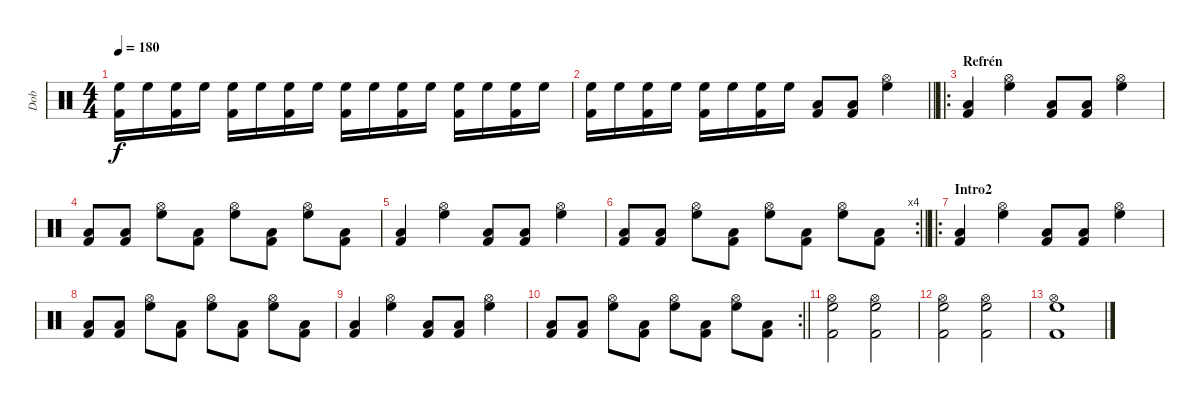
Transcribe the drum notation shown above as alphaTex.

\track ("Dob" "Dob") {instrument percussion}
\staff {score}
\articulation defaults
\ts (4 4)
\tempo 180
\clef neutral
\ks c
("Kick (hit) 2" "High Floor Tom (hit)").16{dy f} "High Floor Tom (hit)".16 ("Kick (hit) 2" "High Floor Tom (hit)").16 "High Floor Tom (hit)".16 ("Kick (hit) 2" "High Floor Tom (hit)").16 "High Floor Tom (hit)".16 ("Kick (hit) 2" "High Floor Tom (hit)").16 "High Floor Tom (hit)".16 ("Kick (hit) 2" "High Floor Tom (hit)").16 "High Floor Tom (hit)".16 ("Kick (hit) 2" "High Floor Tom (hit)").16 "High Floor Tom (hit)".16 ("Kick (hit) 2" "High Floor Tom (hit)").16 "High Floor Tom (hit)".16 ("Kick (hit) 2" "High Floor Tom (hit)").16 "High Floor Tom (hit)".16 |
\barLineRight lightlight
("Kick (hit) 2" "High Floor Tom (hit)").16 "High Floor Tom (hit)".16 ("Kick (hit) 2" "High Floor Tom (hit)").16 "High Floor Tom (hit)".16 ("Kick (hit) 2" "High Floor Tom (hit)").16 "High Floor Tom (hit)".16 ("Kick (hit) 2" "High Floor Tom (hit)").16 "High Floor Tom (hit)".16 ("Low Tom (hit)" "Kick (hit) 2").8 ("Low Tom (hit)" "Kick (hit) 2").8 ("Hi-Hat (open)" "High Floor Tom (hit)").4 |
\ro
\section ("" "Refrén")
("Low Tom (hit)" "Kick (hit) 2").4 ("Hi-Hat (open)" "High Floor Tom (hit)").4 ("Low Tom (hit)" "Kick (hit) 2").8 ("Low Tom (hit)" "Kick (hit) 2").8 ("Hi-Hat (open)" "High Floor Tom (hit)").4 |
("Low Tom (hit)" "Kick (hit) 2").8 ("Low Tom (hit)" "Kick (hit) 2").8 ("Hi-Hat (open)" "High Floor Tom (hit)").8 ("Low Tom (hit)" "Kick (hit) 2").8 ("Hi-Hat (open)" "High Floor Tom (hit)").8 ("Low Tom (hit)" "Kick (hit) 2").8 ("Hi-Hat (open)" "High Floor Tom (hit)").8 ("Low Tom (hit)" "Kick (hit) 2").8 |
("Low Tom (hit)" "Kick (hit) 2").4 ("Hi-Hat (open)" "High Floor Tom (hit)").4 ("Low Tom (hit)" "Kick (hit) 2").8 ("Low Tom (hit)" "Kick (hit) 2").8 ("Hi-Hat (open)" "High Floor Tom (hit)").4 |
\rc 4
\barLineRight lightlight
("Low Tom (hit)" "Kick (hit) 2").8 ("Low Tom (hit)" "Kick (hit) 2").8 ("Hi-Hat (open)" "High Floor Tom (hit)").8 ("Low Tom (hit)" "Kick (hit) 2").8 ("Hi-Hat (open)" "High Floor Tom (hit)").8 ("Low Tom (hit)" "Kick (hit) 2").8 ("Hi-Hat (open)" "High Floor Tom (hit)").8 ("Low Tom (hit)" "Kick (hit) 2").8 |
\ro
\section ("" "Intro2")
("Low Tom (hit)" "Kick (hit) 2").4 ("Hi-Hat (open)" "High Floor Tom (hit)").4 ("Low Tom (hit)" "Kick (hit) 2").8 ("Low Tom (hit)" "Kick (hit) 2").8 ("Hi-Hat (open)" "High Floor Tom (hit)").4 |
("Low Tom (hit)" "Kick (hit) 2").8 ("Low Tom (hit)" "Kick (hit) 2").8 ("Hi-Hat (open)" "High Floor Tom (hit)").8 ("Low Tom (hit)" "Kick (hit) 2").8 ("Hi-Hat (open)" "High Floor Tom (hit)").8 ("Low Tom (hit)" "Kick (hit) 2").8 ("Hi-Hat (open)" "High Floor Tom (hit)").8 ("Low Tom (hit)" "Kick (hit) 2").8 |
("Low Tom (hit)" "Kick (hit) 2").4 ("Hi-Hat (open)" "High Floor Tom (hit)").4 ("Low Tom (hit)" "Kick (hit) 2").8 ("Low Tom (hit)" "Kick (hit) 2").8 ("Hi-Hat (open)" "High Floor Tom (hit)").4 |
\rc 2
\barLineRight lightlight
("Low Tom (hit)" "Kick (hit) 2").8 ("Low Tom (hit)" "Kick (hit) 2").8 ("Hi-Hat (open)" "High Floor Tom (hit)").8 ("Low Tom (hit)" "Kick (hit) 2").8 ("Hi-Hat (open)" "High Floor Tom (hit)").8 ("Low Tom (hit)" "Kick (hit) 2").8 ("Hi-Hat (open)" "High Floor Tom (hit)").8 ("Low Tom (hit)" "Kick (hit) 2").8 |
("Hi-Hat (open)" "Kick (hit) 2" "High Floor Tom (hit)").2 ("Hi-Hat (open)" "Kick (hit) 2" "High Floor Tom (hit)").2 |
("Hi-Hat (open)" "Kick (hit) 2" "High Floor Tom (hit)").2 ("Hi-Hat (open)" "Kick (hit) 2" "High Floor Tom (hit)").2 |
("Hi-Hat (open)" "Kick (hit) 2" "High Floor Tom (hit)").1
